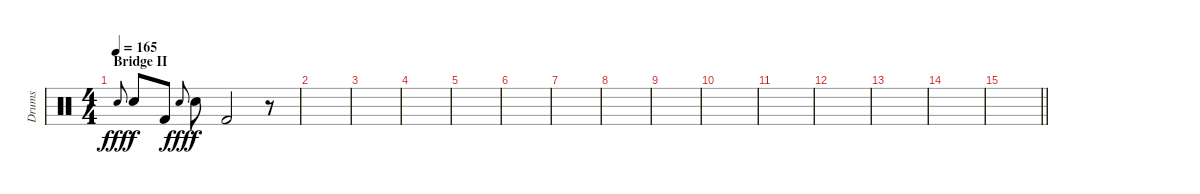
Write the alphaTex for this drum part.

\track ("Drums" "Drums") {instrument percussion}
\staff {score}
\articulation defaults
\ts (4 4)
\section ("" "Bridge II")
\tempo 165
\clef neutral
\ks c "Electric Snare (hit)".8{gr onbeat dy fff} "Electric Snare (hit)".8{dy f} "Kick (hit) 2".8 "Electric Snare (hit)".8{gr onbeat dy fff} "Electric Snare (hit)".8{dy f} "Kick (hit) 2".2
r.8 |
|
|
|
|
|
|
|
|
|
|
|
|
|
\barLineRight lightlight
